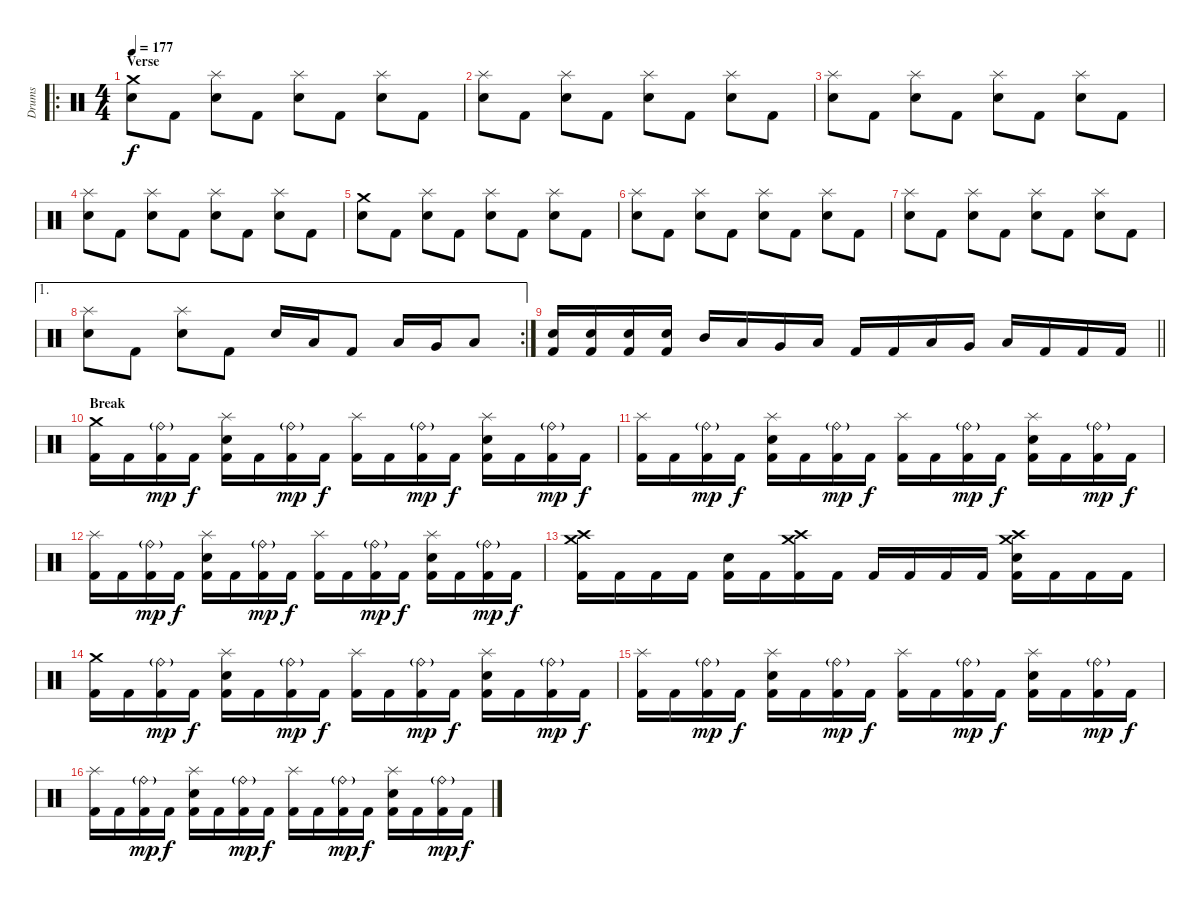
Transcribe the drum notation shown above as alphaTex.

\track ("Drums" "Drums") {instrument percussion}
\staff {score}
\articulation defaults
\ro
\ts (4 4)
\section ("" "Verse")
\tempo 177
\clef neutral
\ks c
("Snare (hit) 2" "Crash medium (hit)").8{dy f} "Kick (hit) 2".8 ("Snare (hit) 2" "Splash (hit)").8 "Kick (hit) 2".8 ("Snare (hit) 2" "Splash (hit)").8 "Kick (hit) 2".8 ("Snare (hit) 2" "Splash (hit)").8 "Kick (hit) 2".8 |
("Snare (hit) 2" "Splash (hit)").8 "Kick (hit) 2".8 ("Snare (hit) 2" "Splash (hit)").8 "Kick (hit) 2".8 ("Snare (hit) 2" "Splash (hit)").8 "Kick (hit) 2".8 ("Snare (hit) 2" "Splash (hit)").8 "Kick (hit) 2".8 |
("Snare (hit) 2" "Splash (hit)").8 "Kick (hit) 2".8 ("Snare (hit) 2" "Splash (hit)").8 "Kick (hit) 2".8 ("Snare (hit) 2" "Splash (hit)").8 "Kick (hit) 2".8 ("Snare (hit) 2" "Splash (hit)").8 "Kick (hit) 2".8 |
("Snare (hit) 2" "Splash (hit)").8 "Kick (hit) 2".8 ("Snare (hit) 2" "Splash (hit)").8 "Kick (hit) 2".8 ("Snare (hit) 2" "Splash (hit)").8 "Kick (hit) 2".8 ("Snare (hit) 2" "Splash (hit)").8 "Kick (hit) 2".8 |
("Snare (hit) 2" "Crash medium (hit)").8 "Kick (hit) 2".8 ("Snare (hit) 2" "Splash (hit)").8 "Kick (hit) 2".8 ("Snare (hit) 2" "Splash (hit)").8 "Kick (hit) 2".8 ("Snare (hit) 2" "Splash (hit)").8 "Kick (hit) 2".8 |
("Snare (hit) 2" "Splash (hit)").8 "Kick (hit) 2".8 ("Snare (hit) 2" "Splash (hit)").8 "Kick (hit) 2".8 ("Snare (hit) 2" "Splash (hit)").8 "Kick (hit) 2".8 ("Snare (hit) 2" "Splash (hit)").8 "Kick (hit) 2".8 |
("Snare (hit) 2" "Splash (hit)").8 "Kick (hit) 2".8 ("Snare (hit) 2" "Splash (hit)").8 "Kick (hit) 2".8 ("Snare (hit) 2" "Splash (hit)").8 "Kick (hit) 2".8 ("Snare (hit) 2" "Splash (hit)").8 "Kick (hit) 2".8 |
\ae 1
\rc 2
("Snare (hit) 2" "Splash (hit)").8 "Kick (hit) 2".8 ("Snare (hit) 2" "Splash (hit)").8 "Kick (hit) 2".8 "Snare (hit) 2".16 "Low Tom (hit)".16 "Kick (hit) 2".8 "Low Tom (hit)".16 "Very Low Tom (hit)".16 "Low Floor Tom (hit)".8 |
\barLineRight lightlight
("Kick (hit) 2" "Snare (hit) 2").16 ("Kick (hit) 2" "Snare (hit) 2").16 ("Kick (hit) 2" "Snare (hit) 2").16 ("Kick (hit) 2" "Snare (hit) 2").16 "Mid Tom (hit)".16 "Low Tom (hit)".16 "Very Low Tom (hit)".16 "Low Floor Tom (hit)".16 "Kick (hit) 2".16 "Kick (hit) 2".16 "Low Tom (hit)".16 "Very Low Tom (hit)".16 "Low Floor Tom (hit)".16 "Kick (hit) 2".16 "Kick (hit) 2".16 "Kick (hit) 2".16 |
\section ("" "Break")
("Kick (hit) 2" "Crash medium (hit)").16 "Kick (hit) 2".16 ("Kick (hit) 2" "Ride (bell)"{g}).16{dy mp} "Kick (hit) 2".16{dy f} ("Kick (hit) 2" "Snare (hit) 2" "Splash (hit)").16 "Kick (hit) 2".16 ("Kick (hit) 2" "Ride (bell)"{g}).16{dy mp} "Kick (hit) 2".16{dy f} ("Kick (hit) 2" "Splash (hit)").16 "Kick (hit) 2".16 ("Kick (hit) 2" "Ride (bell)"{g}).16{dy mp} "Kick (hit) 2".16{dy f} ("Kick (hit) 2" "Snare (hit) 2" "Splash (hit)").16 "Kick (hit) 2".16 ("Kick (hit) 2" "Ride (bell)"{g}).16{dy mp} "Kick (hit) 2".16{dy f} |
("Kick (hit) 2" "Splash (hit)").16 "Kick (hit) 2".16 ("Kick (hit) 2" "Ride (bell)"{g}).16{dy mp} "Kick (hit) 2".16{dy f} ("Kick (hit) 2" "Snare (hit) 2" "Splash (hit)").16 "Kick (hit) 2".16 ("Kick (hit) 2" "Ride (bell)"{g}).16{dy mp} "Kick (hit) 2".16{dy f} ("Kick (hit) 2" "Splash (hit)").16 "Kick (hit) 2".16 ("Kick (hit) 2" "Ride (bell)"{g}).16{dy mp} "Kick (hit) 2".16{dy f} ("Kick (hit) 2" "Snare (hit) 2" "Splash (hit)").16 "Kick (hit) 2".16 ("Kick (hit) 2" "Ride (bell)"{g}).16{dy mp} "Kick (hit) 2".16{dy f} |
("Kick (hit) 2" "Splash (hit)").16 "Kick (hit) 2".16 ("Kick (hit) 2" "Ride (bell)"{g}).16{dy mp} "Kick (hit) 2".16{dy f} ("Kick (hit) 2" "Snare (hit) 2" "Splash (hit)").16 "Kick (hit) 2".16 ("Kick (hit) 2" "Ride (bell)"{g}).16{dy mp} "Kick (hit) 2".16{dy f} ("Kick (hit) 2" "Splash (hit)").16 "Kick (hit) 2".16 ("Kick (hit) 2" "Ride (bell)"{g}).16{dy mp} "Kick (hit) 2".16{dy f} ("Kick (hit) 2" "Snare (hit) 2" "Splash (hit)").16 "Kick (hit) 2".16 ("Kick (hit) 2" "Ride (bell)"{g}).16{dy mp} "Kick (hit) 2".16{dy f} |
("Kick (hit) 2" "Crash high (hit)" "Crash medium (hit)").16 "Kick (hit) 2".16 "Kick (hit) 2".16 "Kick (hit) 2".16 ("Kick (hit) 2" "Snare (hit) 2").16 "Kick (hit) 2".16 ("Kick (hit) 2" "Crash high (hit)" "Crash medium (hit)").16 "Kick (hit) 2".16 "Kick (hit) 2".16 "Kick (hit) 2".16 "Kick (hit) 2".16 "Kick (hit) 2".16 ("Kick (hit) 2" "Snare (hit) 2" "Crash high (hit)" "Crash medium (hit)").16 "Kick (hit) 2".16 "Kick (hit) 2".16 "Kick (hit) 2".16 |
("Kick (hit) 2" "Crash medium (hit)").16 "Kick (hit) 2".16 ("Kick (hit) 2" "Ride (bell)"{g}).16{dy mp} "Kick (hit) 2".16{dy f} ("Kick (hit) 2" "Snare (hit) 2" "Splash (hit)").16 "Kick (hit) 2".16 ("Kick (hit) 2" "Ride (bell)"{g}).16{dy mp} "Kick (hit) 2".16{dy f} ("Kick (hit) 2" "Splash (hit)").16 "Kick (hit) 2".16 ("Kick (hit) 2" "Ride (bell)"{g}).16{dy mp} "Kick (hit) 2".16{dy f} ("Kick (hit) 2" "Snare (hit) 2" "Splash (hit)").16 "Kick (hit) 2".16 ("Kick (hit) 2" "Ride (bell)"{g}).16{dy mp} "Kick (hit) 2".16{dy f} |
("Kick (hit) 2" "Splash (hit)").16 "Kick (hit) 2".16 ("Kick (hit) 2" "Ride (bell)"{g}).16{dy mp} "Kick (hit) 2".16{dy f} ("Kick (hit) 2" "Snare (hit) 2" "Splash (hit)").16 "Kick (hit) 2".16 ("Kick (hit) 2" "Ride (bell)"{g}).16{dy mp} "Kick (hit) 2".16{dy f} ("Kick (hit) 2" "Splash (hit)").16 "Kick (hit) 2".16 ("Kick (hit) 2" "Ride (bell)"{g}).16{dy mp} "Kick (hit) 2".16{dy f} ("Kick (hit) 2" "Snare (hit) 2" "Splash (hit)").16 "Kick (hit) 2".16 ("Kick (hit) 2" "Ride (bell)"{g}).16{dy mp} "Kick (hit) 2".16{dy f} |
("Kick (hit) 2" "Splash (hit)").16 "Kick (hit) 2".16 ("Kick (hit) 2" "Ride (bell)"{g}).16{dy mp} "Kick (hit) 2".16{dy f} ("Kick (hit) 2" "Snare (hit) 2" "Splash (hit)").16 "Kick (hit) 2".16 ("Kick (hit) 2" "Ride (bell)"{g}).16{dy mp} "Kick (hit) 2".16{dy f} ("Kick (hit) 2" "Splash (hit)").16 "Kick (hit) 2".16 ("Kick (hit) 2" "Ride (bell)"{g}).16{dy mp} "Kick (hit) 2".16{dy f} ("Kick (hit) 2" "Snare (hit) 2" "Splash (hit)").16 "Kick (hit) 2".16 ("Kick (hit) 2" "Ride (bell)"{g}).16{dy mp} "Kick (hit) 2".16{dy f}
